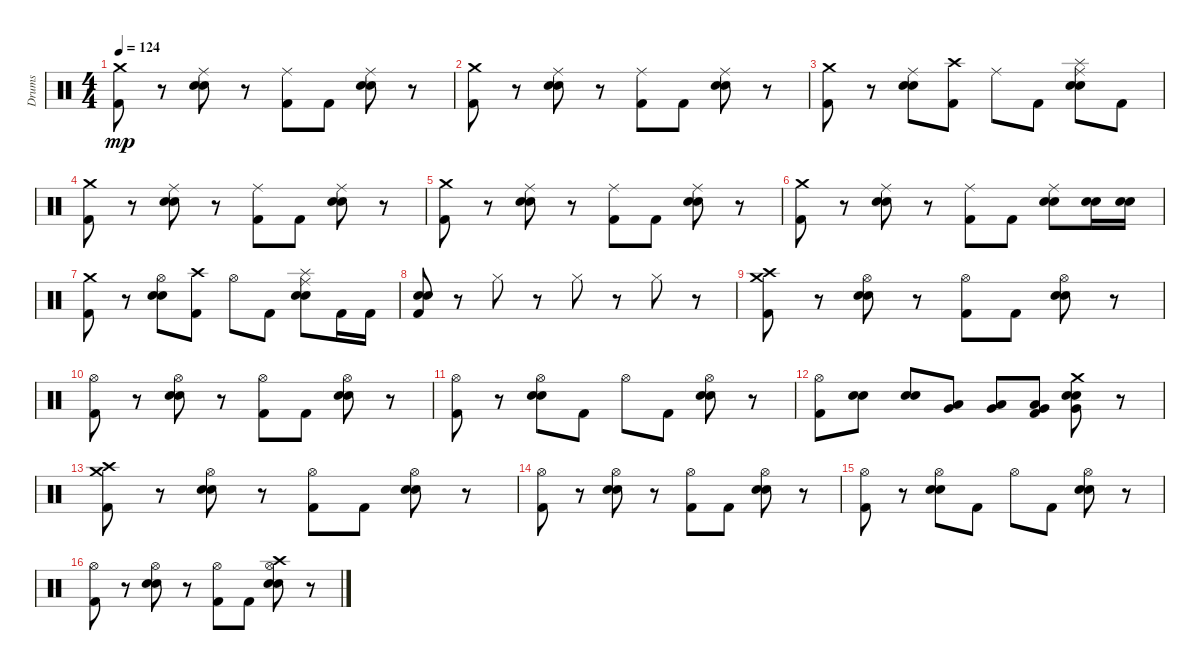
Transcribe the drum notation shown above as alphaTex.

\track ("Drums" "Drums") {instrument percussion}
\staff {score}
\articulation defaults
\ts (4 4)
\tempo 124
\clef neutral
\ks c
("Crash medium (hit)" "Kick (hit) 2").8{dy mp} r.8 ("Electric Snare (hit)" "Ride (middle)" "Snare (hit) 2").8 r.8 ("Ride (middle)" "Kick (hit) 2").8 "Kick (hit) 2".8 ("Electric Snare (hit)" "Snare (hit) 2" "Ride (middle)").8 r.8 |
("Kick (hit) 2" "Crash medium (hit)").8 r.8 ("Snare (hit) 2" "Electric Snare (hit)" "Ride (middle)").8 r.8 ("Kick (hit) 2" "Ride (middle)").8 "Kick (hit) 2".8 ("Snare (hit) 2" "Ride (middle)" "Electric Snare (hit)").8 r.8 |
("Crash medium (hit)" "Kick (hit) 2").8 r.8 ("Ride (middle)" "Electric Snare (hit)" "Snare (hit) 2").8 ("Kick (hit) 2" "Crash high (hit)").8 "Ride (middle)".8 "Kick (hit) 2".8 ("Ride (middle)" "Snare (hit) 2" "Splash (hit)" "Electric Snare (hit)").8 "Kick (hit) 2".8 |
("Kick (hit) 2" "Crash medium (hit)").8 r.8 ("Ride (middle)" "Electric Snare (hit)" "Snare (hit) 2").8 r.8 ("Kick (hit) 2" "Ride (middle)").8 "Kick (hit) 2".8 ("Ride (middle)" "Electric Snare (hit)" "Snare (hit) 2").8 r.8 |
("Kick (hit) 2" "Crash medium (hit)").8 r.8 ("Ride (middle)" "Snare (hit) 2" "Electric Snare (hit)").8 r.8 ("Ride (middle)" "Kick (hit) 2").8 "Kick (hit) 2".8 ("Snare (hit) 2" "Ride (middle)" "Electric Snare (hit)").8 r.8 |
("Kick (hit) 2" "Crash medium (hit)").8 r.8 ("Electric Snare (hit)" "Snare (hit) 2" "Ride (middle)").8 r.8 ("Kick (hit) 2" "Ride (middle)").8 "Kick (hit) 2".8 ("Ride (middle)" "Electric Snare (hit)" "Snare (hit) 2").8 ("Snare (hit) 2" "Electric Snare (hit)").16 ("Electric Snare (hit)" "Snare (hit) 2").16 |
("Crash medium (hit)" "Kick (hit) 2").8 r.8 ("Snare (hit) 2" "Electric Snare (hit)" "Hi-Hat (open)").8 ("Crash high (hit)" "Kick (hit) 2").8 "Hi-Hat (open)".8 "Kick (hit) 2".8 ("Splash (hit)" "Snare (hit) 2" "Ride (middle)" "Electric Snare (hit)").8 "Kick (hit) 2".16 "Kick (hit) 2".16 |
("Electric Snare (hit)" "Snare (hit) 2" "Kick (hit) 2").8 r.8 "Hi-Hat (closed)".8 r.8 "Hi-Hat (closed)".8 r.8 "Hi-Hat (closed)".8 r.8 |
("Crash high (hit)" "Crash medium (hit)" "Kick (hit) 2").8 r.8 ("Hi-Hat (open)" "Snare (hit) 2" "Electric Snare (hit)").8 r.8 ("Kick (hit) 2" "Hi-Hat (open)").8 "Kick (hit) 2".8 ("Hi-Hat (open)" "Snare (hit) 2" "Electric Snare (hit)").8 r.8 |
("Hi-Hat (open)" "Kick (hit) 2").8 r.8 ("Snare (hit) 2" "Hi-Hat (open)" "Electric Snare (hit)").8 r.8 ("Kick (hit) 2" "Hi-Hat (open)").8 "Kick (hit) 2".8 ("Electric Snare (hit)" "Hi-Hat (open)" "Snare (hit) 2").8 r.8 |
("Hi-Hat (open)" "Kick (hit) 2").8 r.8 ("Hi-Hat (open)" "Electric Snare (hit)" "Snare (hit) 2").8 "Kick (hit) 2".8 "Hi-Hat (open)".8 "Kick (hit) 2".8 ("Snare (hit) 2" "Electric Snare (hit)" "Hi-Hat (open)").8 r.8 |
("Kick (hit) 2" "Hi-Hat (open)").8 ("Snare (hit) 2" "Electric Snare (hit)").8 ("Electric Snare (hit)" "Snare (hit) 2").8 ("Very Low Tom (hit)" "Low Tom (hit)").8 ("Low Tom (hit)" "Very Low Tom (hit)").8 ("Very Low Tom (hit)" "Low Floor Tom (hit)" "Kick (hit) 2").8 ("Snare (hit) 2" "Crash medium (hit)" "Very Low Tom (hit)" "Electric Snare (hit)").8 r.8 |
("Crash medium (hit)" "Crash high (hit)" "Kick (hit) 2").8 r.8 ("Electric Snare (hit)" "Hi-Hat (open)" "Snare (hit) 2").8 r.8 ("Kick (hit) 2" "Hi-Hat (open)").8 "Kick (hit) 2".8 ("Hi-Hat (open)" "Electric Snare (hit)" "Snare (hit) 2").8 r.8 |
("Hi-Hat (open)" "Kick (hit) 2").8 r.8 ("Electric Snare (hit)" "Snare (hit) 2" "Hi-Hat (open)").8 r.8 ("Kick (hit) 2" "Hi-Hat (open)").8 "Kick (hit) 2".8 ("Hi-Hat (open)" "Electric Snare (hit)" "Snare (hit) 2").8 r.8 |
("Kick (hit) 2" "Hi-Hat (open)").8 r.8 ("Hi-Hat (open)" "Electric Snare (hit)" "Snare (hit) 2").8 "Kick (hit) 2".8 "Hi-Hat (open)".8 "Kick (hit) 2".8 ("Snare (hit) 2" "Hi-Hat (open)" "Electric Snare (hit)").8 r.8 |
("Hi-Hat (open)" "Kick (hit) 2").8 r.8 ("Electric Snare (hit)" "Snare (hit) 2" "Hi-Hat (open)").8 r.8 ("Hi-Hat (open)" "Kick (hit) 2").8 "Kick (hit) 2".8 ("Crash high (hit)" "Snare (hit) 2" "Hi-Hat (open)" "Electric Snare (hit)").8 r.8
